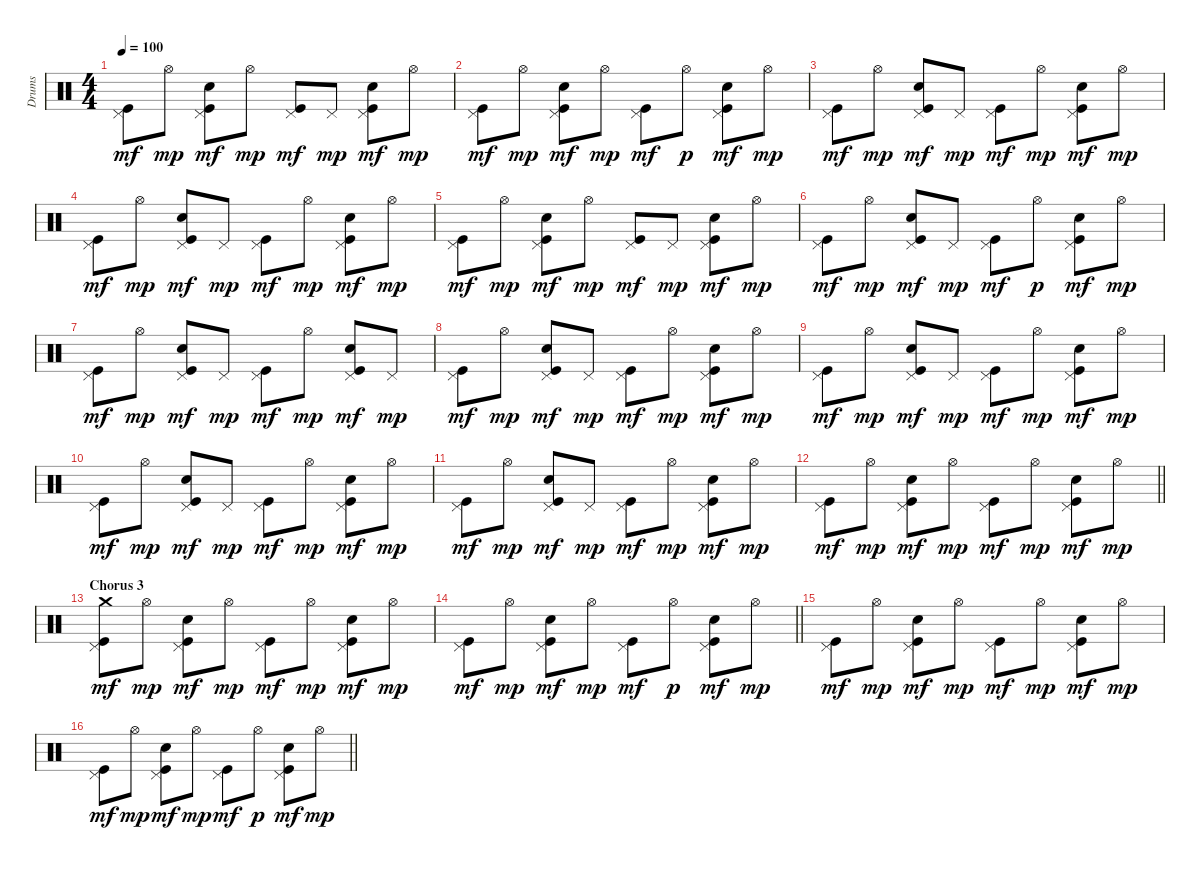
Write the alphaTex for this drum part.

\track ("Drums" "Drums") {instrument percussion}
\staff {score}
\articulation defaults
\ts (4 4)
\tempo 100
\clef neutral
\ks c
("Pedal Hi-Hat (hit)" "Kick (hit)").8{dy mf} "Hi-Hat (open)".8{dy mp} ("Pedal Hi-Hat (hit)" "Electric Snare (hit)" "Kick (hit)").8{dy mf} "Hi-Hat (open)".8{dy mp} ("Pedal Hi-Hat (hit)" "Kick (hit)").8{dy mf} "Pedal Hi-Hat (hit)".8{dy mp} ("Pedal Hi-Hat (hit)" "Electric Snare (hit)" "Kick (hit)").8{dy mf} "Hi-Hat (open)".8{dy mp} |
("Pedal Hi-Hat (hit)" "Kick (hit)").8{dy mf} "Hi-Hat (open)".8{dy mp} ("Pedal Hi-Hat (hit)" "Electric Snare (hit)" "Kick (hit)").8{dy mf} "Hi-Hat (open)".8{dy mp} ("Pedal Hi-Hat (hit)" "Kick (hit)").8{dy mf} "Hi-Hat (open)".8{dy p} ("Pedal Hi-Hat (hit)" "Electric Snare (hit)" "Kick (hit)").8{dy mf} "Hi-Hat (open)".8{dy mp} |
("Pedal Hi-Hat (hit)" "Kick (hit)").8{dy mf} "Hi-Hat (open)".8{dy mp} ("Pedal Hi-Hat (hit)" "Electric Snare (hit)" "Kick (hit)").8{dy mf} "Pedal Hi-Hat (hit)".8{dy mp} ("Pedal Hi-Hat (hit)" "Kick (hit)").8{dy mf} "Hi-Hat (open)".8{dy mp} ("Pedal Hi-Hat (hit)" "Electric Snare (hit)" "Kick (hit)").8{dy mf} "Hi-Hat (open)".8{dy mp} |
("Pedal Hi-Hat (hit)" "Kick (hit)").8{dy mf} "Hi-Hat (open)".8{dy mp} ("Pedal Hi-Hat (hit)" "Electric Snare (hit)" "Kick (hit)").8{dy mf} "Pedal Hi-Hat (hit)".8{dy mp} ("Pedal Hi-Hat (hit)" "Kick (hit)").8{dy mf} "Hi-Hat (open)".8{dy mp} ("Pedal Hi-Hat (hit)" "Electric Snare (hit)" "Kick (hit)").8{dy mf} "Hi-Hat (open)".8{dy mp} |
("Pedal Hi-Hat (hit)" "Kick (hit)").8{dy mf} "Hi-Hat (open)".8{dy mp} ("Pedal Hi-Hat (hit)" "Electric Snare (hit)" "Kick (hit)").8{dy mf} "Hi-Hat (open)".8{dy mp} ("Pedal Hi-Hat (hit)" "Kick (hit)").8{dy mf} "Pedal Hi-Hat (hit)".8{dy mp} ("Pedal Hi-Hat (hit)" "Electric Snare (hit)" "Kick (hit)").8{dy mf} "Hi-Hat (open)".8{dy mp} |
("Pedal Hi-Hat (hit)" "Kick (hit)").8{dy mf} "Hi-Hat (open)".8{dy mp} ("Pedal Hi-Hat (hit)" "Electric Snare (hit)" "Kick (hit)").8{dy mf} "Pedal Hi-Hat (hit)".8{dy mp} ("Pedal Hi-Hat (hit)" "Kick (hit)").8{dy mf} "Hi-Hat (open)".8{dy p} ("Pedal Hi-Hat (hit)" "Electric Snare (hit)" "Kick (hit)").8{dy mf} "Hi-Hat (open)".8{dy mp} |
("Pedal Hi-Hat (hit)" "Kick (hit)").8{dy mf} "Hi-Hat (open)".8{dy mp} ("Pedal Hi-Hat (hit)" "Electric Snare (hit)" "Kick (hit)").8{dy mf} "Pedal Hi-Hat (hit)".8{dy mp} ("Pedal Hi-Hat (hit)" "Kick (hit)").8{dy mf} "Hi-Hat (open)".8{dy mp} ("Pedal Hi-Hat (hit)" "Electric Snare (hit)" "Kick (hit)").8{dy mf} "Pedal Hi-Hat (hit)".8{dy mp} |
("Pedal Hi-Hat (hit)" "Kick (hit)").8{dy mf} "Hi-Hat (open)".8{dy mp} ("Pedal Hi-Hat (hit)" "Electric Snare (hit)" "Kick (hit)").8{dy mf} "Pedal Hi-Hat (hit)".8{dy mp} ("Pedal Hi-Hat (hit)" "Kick (hit)").8{dy mf} "Hi-Hat (open)".8{dy mp} ("Pedal Hi-Hat (hit)" "Electric Snare (hit)" "Kick (hit)").8{dy mf} "Hi-Hat (open)".8{dy mp} |
("Pedal Hi-Hat (hit)" "Kick (hit)").8{dy mf} "Hi-Hat (open)".8{dy mp} ("Pedal Hi-Hat (hit)" "Electric Snare (hit)" "Kick (hit)").8{dy mf} "Pedal Hi-Hat (hit)".8{dy mp} ("Pedal Hi-Hat (hit)" "Kick (hit)").8{dy mf} "Hi-Hat (open)".8{dy mp} ("Pedal Hi-Hat (hit)" "Electric Snare (hit)" "Kick (hit)").8{dy mf} "Hi-Hat (open)".8{dy mp} |
("Pedal Hi-Hat (hit)" "Kick (hit)").8{dy mf} "Hi-Hat (open)".8{dy mp} ("Pedal Hi-Hat (hit)" "Electric Snare (hit)" "Kick (hit)").8{dy mf} "Pedal Hi-Hat (hit)".8{dy mp} ("Pedal Hi-Hat (hit)" "Kick (hit)").8{dy mf} "Hi-Hat (open)".8{dy mp} ("Pedal Hi-Hat (hit)" "Electric Snare (hit)" "Kick (hit)").8{dy mf} "Hi-Hat (open)".8{dy mp} |
("Pedal Hi-Hat (hit)" "Kick (hit)").8{dy mf} "Hi-Hat (open)".8{dy mp} ("Pedal Hi-Hat (hit)" "Electric Snare (hit)" "Kick (hit)").8{dy mf} "Pedal Hi-Hat (hit)".8{dy mp} ("Pedal Hi-Hat (hit)" "Kick (hit)").8{dy mf} "Hi-Hat (open)".8{dy mp} ("Pedal Hi-Hat (hit)" "Electric Snare (hit)" "Kick (hit)").8{dy mf} "Hi-Hat (open)".8{dy mp} |
\barLineRight lightlight
("Pedal Hi-Hat (hit)" "Kick (hit)").8{dy mf} "Hi-Hat (open)".8{dy mp} ("Pedal Hi-Hat (hit)" "Electric Snare (hit)" "Kick (hit)").8{dy mf} "Hi-Hat (open)".8{dy mp} ("Pedal Hi-Hat (hit)" "Kick (hit)").8{dy mf} "Hi-Hat (open)".8{dy mp} ("Pedal Hi-Hat (hit)" "Electric Snare (hit)" "Kick (hit)").8{dy mf} "Hi-Hat (open)".8{dy mp} |
\section ("" "Chorus 3")
("Pedal Hi-Hat (hit)" "Crash medium (hit)" "Kick (hit)").8{dy mf} "Hi-Hat (open)".8{dy mp} ("Pedal Hi-Hat (hit)" "Electric Snare (hit)" "Kick (hit)").8{dy mf} "Hi-Hat (open)".8{dy mp} ("Pedal Hi-Hat (hit)" "Kick (hit)").8{dy mf} "Hi-Hat (open)".8{dy mp} ("Pedal Hi-Hat (hit)" "Electric Snare (hit)" "Kick (hit)").8{dy mf} "Hi-Hat (open)".8{dy mp} |
\barLineRight lightlight
("Pedal Hi-Hat (hit)" "Kick (hit)").8{dy mf} "Hi-Hat (open)".8{dy mp} ("Pedal Hi-Hat (hit)" "Electric Snare (hit)" "Kick (hit)").8{dy mf} "Hi-Hat (open)".8{dy mp} ("Pedal Hi-Hat (hit)" "Kick (hit)").8{dy mf} "Hi-Hat (open)".8{dy p} ("Pedal Hi-Hat (hit)" "Electric Snare (hit)" "Kick (hit)").8{dy mf} "Hi-Hat (open)".8{dy mp} |
("Pedal Hi-Hat (hit)" "Kick (hit)").8{dy mf} "Hi-Hat (open)".8{dy mp} ("Pedal Hi-Hat (hit)" "Electric Snare (hit)" "Kick (hit)").8{dy mf} "Hi-Hat (open)".8{dy mp} ("Pedal Hi-Hat (hit)" "Kick (hit)").8{dy mf} "Hi-Hat (open)".8{dy mp} ("Pedal Hi-Hat (hit)" "Electric Snare (hit)" "Kick (hit)").8{dy mf} "Hi-Hat (open)".8{dy mp} |
\barLineRight lightlight
("Pedal Hi-Hat (hit)" "Kick (hit)").8{dy mf} "Hi-Hat (open)".8{dy mp} ("Pedal Hi-Hat (hit)" "Electric Snare (hit)" "Kick (hit)").8{dy mf} "Hi-Hat (open)".8{dy mp} ("Pedal Hi-Hat (hit)" "Kick (hit)").8{dy mf} "Hi-Hat (open)".8{dy p} ("Pedal Hi-Hat (hit)" "Electric Snare (hit)" "Kick (hit)").8{dy mf} "Hi-Hat (open)".8{dy mp}
